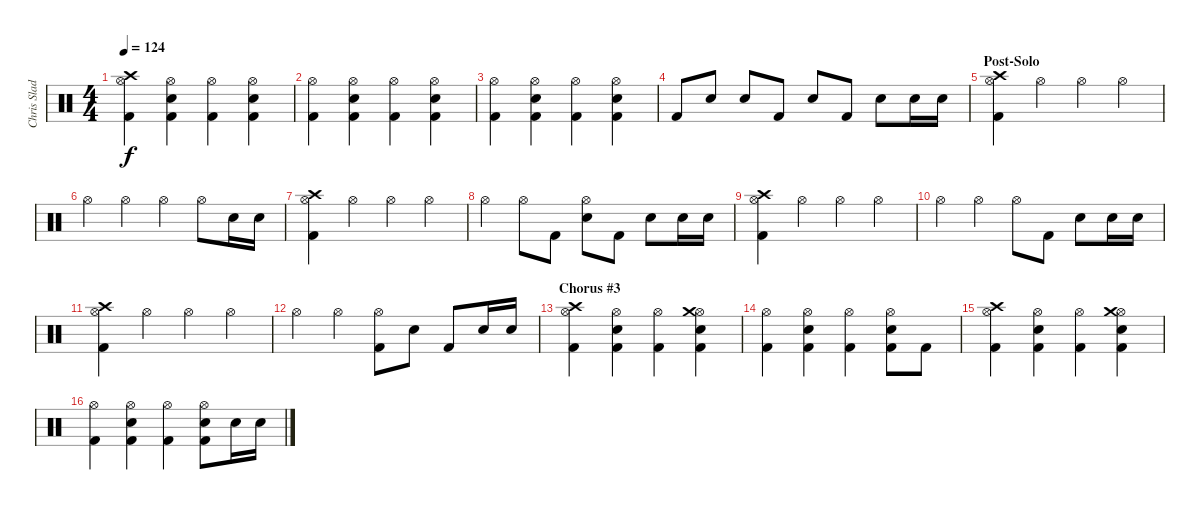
\track ("Chris Slade" "Chris Slad") {instrument percussion}
\staff {score}
\articulation defaults
\ts (4 4)
\tempo 124
\clef neutral
\ks c
("Hi-Hat (open)" "Crash high (hit)" "Kick (hit) 2").4{dy f} ("Hi-Hat (open)" "Snare (hit) 2" "Kick (hit) 2").4 ("Hi-Hat (open)" "Kick (hit) 2").4 ("Hi-Hat (open)" "Snare (hit) 2" "Kick (hit) 2").4 |
("Hi-Hat (open)" "Kick (hit) 2").4 ("Hi-Hat (open)" "Snare (hit) 2" "Kick (hit) 2").4 ("Hi-Hat (open)" "Kick (hit) 2").4 ("Hi-Hat (open)" "Snare (hit) 2" "Kick (hit) 2").4 |
("Hi-Hat (open)" "Kick (hit) 2").4 ("Hi-Hat (open)" "Snare (hit) 2" "Kick (hit) 2").4 ("Hi-Hat (open)" "Kick (hit) 2").4 ("Hi-Hat (open)" "Snare (hit) 2" "Kick (hit) 2").4 |
"Kick (hit) 2".8 "Snare (hit) 2".8 "Snare (hit) 2".8 "Kick (hit) 2".8 "Snare (hit) 2".8 "Kick (hit) 2".8 "Snare (hit) 2".8 "Snare (hit) 2".16 "Snare (hit) 2".16 |
\section ("" "Post-Solo")
("Hi-Hat (open)" "Crash high (hit)" "Kick (hit) 2").4 "Hi-Hat (open)".4 "Hi-Hat (open)".4 "Hi-Hat (open)".4 |
"Hi-Hat (open)".4 "Hi-Hat (open)".4 "Hi-Hat (open)".4 "Hi-Hat (open)".8 "Snare (hit) 2".16 "Snare (hit) 2".16 |
("Hi-Hat (open)" "Crash high (hit)" "Kick (hit) 2").4 "Hi-Hat (open)".4 "Hi-Hat (open)".4 "Hi-Hat (open)".4 |
"Hi-Hat (open)".4 "Hi-Hat (open)".8 "Kick (hit) 2".8 ("Hi-Hat (open)" "Snare (hit) 2").8 "Kick (hit) 2".8 "Snare (hit) 2".8 "Snare (hit) 2".16 "Snare (hit) 2".16 |
("Hi-Hat (open)" "Crash high (hit)" "Kick (hit) 2").4 "Hi-Hat (open)".4 "Hi-Hat (open)".4 "Hi-Hat (open)".4 |
"Hi-Hat (open)".4 "Hi-Hat (open)".4 "Hi-Hat (open)".8 "Kick (hit) 2".8 "Snare (hit) 2".8 "Snare (hit) 2".16 "Snare (hit) 2".16 |
("Hi-Hat (open)" "Crash high (hit)" "Kick (hit) 2").4 "Hi-Hat (open)".4 "Hi-Hat (open)".4 "Hi-Hat (open)".4 |
"Hi-Hat (open)".4 "Hi-Hat (open)".4 ("Hi-Hat (open)" "Kick (hit) 2").8 "Snare (hit) 2".8 "Kick (hit) 2".8 "Snare (hit) 2".16 "Snare (hit) 2".16 |
\section ("" "Chorus #3")
("Hi-Hat (open)" "Crash high (hit)" "Kick (hit) 2").4 ("Hi-Hat (open)" "Snare (hit) 2" "Kick (hit) 2").4 ("Hi-Hat (open)" "Kick (hit) 2").4 ("Hi-Hat (open)" "Crash medium (hit)" "Snare (hit) 2" "Kick (hit) 2").4 |
("Hi-Hat (open)" "Kick (hit) 2").4 ("Hi-Hat (open)" "Snare (hit) 2" "Kick (hit) 2").4 ("Hi-Hat (open)" "Kick (hit) 2").4 ("Hi-Hat (open)" "Snare (hit) 2" "Kick (hit) 2").8 "Kick (hit) 2".8 |
("Hi-Hat (open)" "Crash high (hit)" "Kick (hit) 2").4 ("Hi-Hat (open)" "Snare (hit) 2" "Kick (hit) 2").4 ("Hi-Hat (open)" "Kick (hit) 2").4 ("Hi-Hat (open)" "Crash medium (hit)" "Snare (hit) 2" "Kick (hit) 2").4 |
("Hi-Hat (open)" "Kick (hit) 2").4 ("Hi-Hat (open)" "Snare (hit) 2" "Kick (hit) 2").4 ("Hi-Hat (open)" "Kick (hit) 2").4 ("Hi-Hat (open)" "Snare (hit) 2" "Kick (hit) 2").8 "Snare (hit) 2".16 "Snare (hit) 2".16
